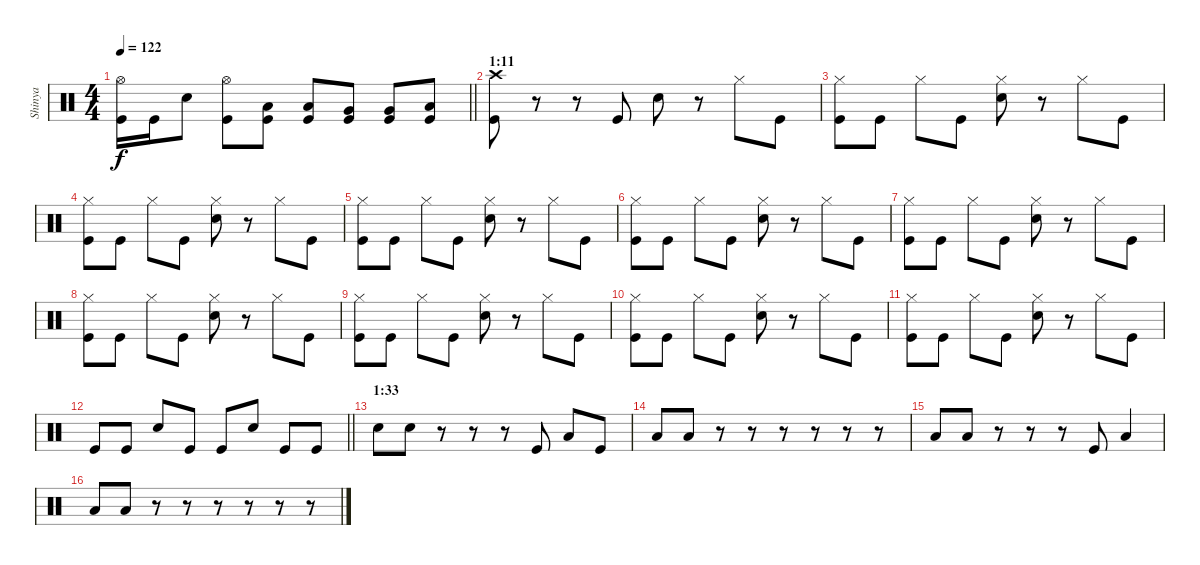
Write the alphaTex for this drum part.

\track ("Shinya" "Shinya") {instrument percussion}
\staff {score}
\articulation defaults
\ts (4 4)
\tempo 122
\clef neutral
\barLineRight lightlight
\ks c
("Hi-Hat (open)" "Kick (hit)").16{dy f} "Kick (hit)".16 "Snare (hit) 2".8 ("Hi-Hat (open)" "Kick (hit)").8 ("Low Tom (hit)" "Kick (hit)").8 ("Low Tom (hit)" "Kick (hit)").8 ("Very Low Tom (hit)" "Kick (hit)").8 ("Very Low Tom (hit)" "Kick (hit)").8 ("Low Floor Tom (hit)" "Kick (hit)").8 |
\section ("" "1:11")
("Crash high (hit)" "Kick (hit)").8 r.8 r.8 "Kick (hit)".8 "Snare (hit) 2".8 r.8 "Hi-Hat (closed)".8 "Kick (hit)".8 |
("Hi-Hat (closed)" "Kick (hit)").8 "Kick (hit)".8 "Hi-Hat (closed)".8 "Kick (hit)".8 ("Hi-Hat (closed)" "Snare (hit) 2").8 r.8 "Hi-Hat (closed)".8 "Kick (hit)".8 |
("Hi-Hat (closed)" "Kick (hit)").8 "Kick (hit)".8 "Hi-Hat (closed)".8 "Kick (hit)".8 ("Hi-Hat (closed)" "Snare (hit) 2").8 r.8 "Hi-Hat (closed)".8 "Kick (hit)".8 |
("Hi-Hat (closed)" "Kick (hit)").8 "Kick (hit)".8 "Hi-Hat (closed)".8 "Kick (hit)".8 ("Hi-Hat (closed)" "Snare (hit) 2").8 r.8 "Hi-Hat (closed)".8 "Kick (hit)".8 |
("Hi-Hat (closed)" "Kick (hit)").8 "Kick (hit)".8 "Hi-Hat (closed)".8 "Kick (hit)".8 ("Hi-Hat (closed)" "Snare (hit) 2").8 r.8 "Hi-Hat (closed)".8 "Kick (hit)".8 |
("Hi-Hat (closed)" "Kick (hit)").8 "Kick (hit)".8 "Hi-Hat (closed)".8 "Kick (hit)".8 ("Hi-Hat (closed)" "Snare (hit) 2").8 r.8 "Hi-Hat (closed)".8 "Kick (hit)".8 |
("Hi-Hat (closed)" "Kick (hit)").8 "Kick (hit)".8 "Hi-Hat (closed)".8 "Kick (hit)".8 ("Hi-Hat (closed)" "Snare (hit) 2").8 r.8 "Hi-Hat (closed)".8 "Kick (hit)".8 |
("Hi-Hat (closed)" "Kick (hit)").8 "Kick (hit)".8 "Hi-Hat (closed)".8 "Kick (hit)".8 ("Hi-Hat (closed)" "Snare (hit) 2").8 r.8 "Hi-Hat (closed)".8 "Kick (hit)".8 |
("Hi-Hat (closed)" "Kick (hit)").8 "Kick (hit)".8 "Hi-Hat (closed)".8 "Kick (hit)".8 ("Hi-Hat (closed)" "Snare (hit) 2").8 r.8 "Hi-Hat (closed)".8 "Kick (hit)".8 |
("Hi-Hat (closed)" "Kick (hit)").8 "Kick (hit)".8 "Hi-Hat (closed)".8 "Kick (hit)".8 ("Hi-Hat (closed)" "Snare (hit) 2").8 r.8 "Hi-Hat (closed)".8 "Kick (hit)".8 |
\barLineRight lightlight "Kick (hit)".8 "Kick (hit)".8 "Snare (hit) 2".8 "Kick (hit)".8 "Kick (hit)".8 "Snare (hit) 2".8 "Kick (hit)".8 "Kick (hit)".8
|
\section ("" "1:33")
"Snare (hit) 2".8 "Snare (hit) 2".8 r.8 r.8 r.8 "Kick (hit)".8 "Low Floor Tom (hit)".8 "Kick (hit)".8 |
"Low Floor Tom (hit)".8 "Low Floor Tom (hit)".8 r.8 r.8 r.8 r.8 r.8 r.8 |
"Low Floor Tom (hit)".8 "Low Floor Tom (hit)".8 r.8 r.8 r.8 "Kick (hit)".8 "Low Floor Tom (hit)".4 |
"Low Floor Tom (hit)".8 "Low Floor Tom (hit)".8 r.8 r.8 r.8 r.8 r.8 r.8
